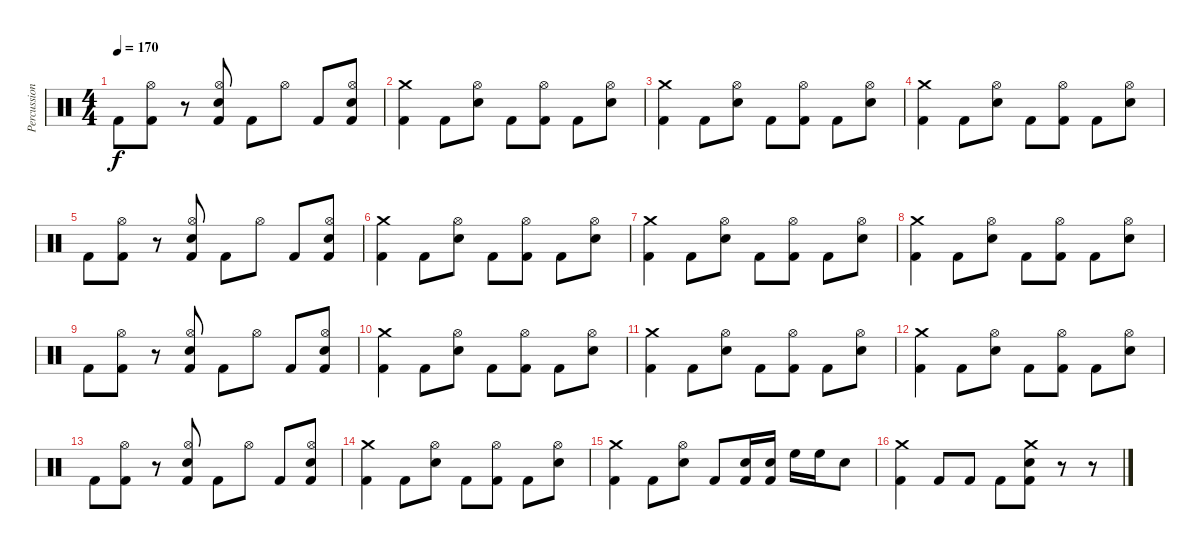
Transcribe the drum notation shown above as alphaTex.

\track ("Percussion" "Percussion") {instrument percussion}
\staff {score}
\articulation defaults
\ts (4 4)
\tempo 170
\clef neutral
\ks c "Kick (hit) 2".8{dy f}
("Hi-Hat (open)" "Kick (hit) 2").8 r.8 ("Hi-Hat (open)" "Electric Snare (hit)" "Kick (hit) 2").8 "Kick (hit) 2".8 "Hi-Hat (open)".8 "Kick (hit) 2".8 ("Hi-Hat (open)" "Electric Snare (hit)" "Kick (hit) 2").8 |
("Crash medium (hit)" "Kick (hit) 2").4 "Kick (hit) 2".8 ("Hi-Hat (open)" "Electric Snare (hit)").8 "Kick (hit) 2".8 ("Hi-Hat (open)" "Kick (hit) 2").8 "Kick (hit) 2".8 ("Hi-Hat (open)" "Electric Snare (hit)").8 |
("Crash medium (hit)" "Kick (hit) 2").4 "Kick (hit) 2".8 ("Hi-Hat (open)" "Electric Snare (hit)").8 "Kick (hit) 2".8 ("Hi-Hat (open)" "Kick (hit) 2").8 "Kick (hit) 2".8 ("Hi-Hat (open)" "Electric Snare (hit)").8 |
("Crash medium (hit)" "Kick (hit) 2").4 "Kick (hit) 2".8 ("Hi-Hat (open)" "Electric Snare (hit)").8 "Kick (hit) 2".8 ("Hi-Hat (open)" "Kick (hit) 2").8 "Kick (hit) 2".8 ("Hi-Hat (open)" "Electric Snare (hit)").8 |
"Kick (hit) 2".8 ("Hi-Hat (open)" "Kick (hit) 2").8 r.8 ("Hi-Hat (open)" "Electric Snare (hit)" "Kick (hit) 2").8 "Kick (hit) 2".8 "Hi-Hat (open)".8 "Kick (hit) 2".8 ("Hi-Hat (open)" "Electric Snare (hit)" "Kick (hit) 2").8 |
("Crash medium (hit)" "Kick (hit) 2").4 "Kick (hit) 2".8 ("Hi-Hat (open)" "Electric Snare (hit)").8 "Kick (hit) 2".8 ("Hi-Hat (open)" "Kick (hit) 2").8 "Kick (hit) 2".8 ("Hi-Hat (open)" "Electric Snare (hit)").8 |
("Crash medium (hit)" "Kick (hit) 2").4 "Kick (hit) 2".8 ("Hi-Hat (open)" "Electric Snare (hit)").8 "Kick (hit) 2".8 ("Hi-Hat (open)" "Kick (hit) 2").8 "Kick (hit) 2".8 ("Hi-Hat (open)" "Electric Snare (hit)").8 |
("Crash medium (hit)" "Kick (hit) 2").4 "Kick (hit) 2".8 ("Hi-Hat (open)" "Electric Snare (hit)").8 "Kick (hit) 2".8 ("Hi-Hat (open)" "Kick (hit) 2").8 "Kick (hit) 2".8 ("Hi-Hat (open)" "Electric Snare (hit)").8 |
"Kick (hit) 2".8 ("Hi-Hat (open)" "Kick (hit) 2").8 r.8 ("Hi-Hat (open)" "Electric Snare (hit)" "Kick (hit) 2").8 "Kick (hit) 2".8 "Hi-Hat (open)".8 "Kick (hit) 2".8 ("Hi-Hat (open)" "Electric Snare (hit)" "Kick (hit) 2").8 |
("Crash medium (hit)" "Kick (hit) 2").4 "Kick (hit) 2".8 ("Hi-Hat (open)" "Electric Snare (hit)").8 "Kick (hit) 2".8 ("Hi-Hat (open)" "Kick (hit) 2").8 "Kick (hit) 2".8 ("Hi-Hat (open)" "Electric Snare (hit)").8 |
("Crash medium (hit)" "Kick (hit) 2").4 "Kick (hit) 2".8 ("Hi-Hat (open)" "Electric Snare (hit)").8 "Kick (hit) 2".8 ("Hi-Hat (open)" "Kick (hit) 2").8 "Kick (hit) 2".8 ("Hi-Hat (open)" "Electric Snare (hit)").8 |
("Crash medium (hit)" "Kick (hit) 2").4 "Kick (hit) 2".8 ("Hi-Hat (open)" "Electric Snare (hit)").8 "Kick (hit) 2".8 ("Hi-Hat (open)" "Kick (hit) 2").8 "Kick (hit) 2".8 ("Hi-Hat (open)" "Electric Snare (hit)").8 |
"Kick (hit) 2".8 ("Hi-Hat (open)" "Kick (hit) 2").8 r.8 ("Hi-Hat (open)" "Electric Snare (hit)" "Kick (hit) 2").8 "Kick (hit) 2".8 "Hi-Hat (open)".8 "Kick (hit) 2".8 ("Hi-Hat (open)" "Electric Snare (hit)" "Kick (hit) 2").8 |
("Crash medium (hit)" "Kick (hit) 2").4 "Kick (hit) 2".8 ("Hi-Hat (open)" "Electric Snare (hit)").8 "Kick (hit) 2".8 ("Hi-Hat (open)" "Kick (hit) 2").8 "Kick (hit) 2".8 ("Hi-Hat (open)" "Electric Snare (hit)").8 |
("Crash medium (hit)" "Kick (hit) 2").4 "Kick (hit) 2".8 ("Hi-Hat (open)" "Electric Snare (hit)").8 "Kick (hit) 2".8 ("Electric Snare (hit)" "Kick (hit) 2").16 ("Electric Snare (hit)" "Kick (hit) 2").16 "High Floor Tom (hit)".16 "High Floor Tom (hit)".16 "Electric Snare (hit)".8 |
("Crash medium (hit)" "Kick (hit) 2").4 "Kick (hit) 2".8 "Kick (hit) 2".8 "Kick (hit) 2".8 ("Crash medium (hit)" "Electric Snare (hit)" "Kick (hit) 2").8 r.8 r.8
